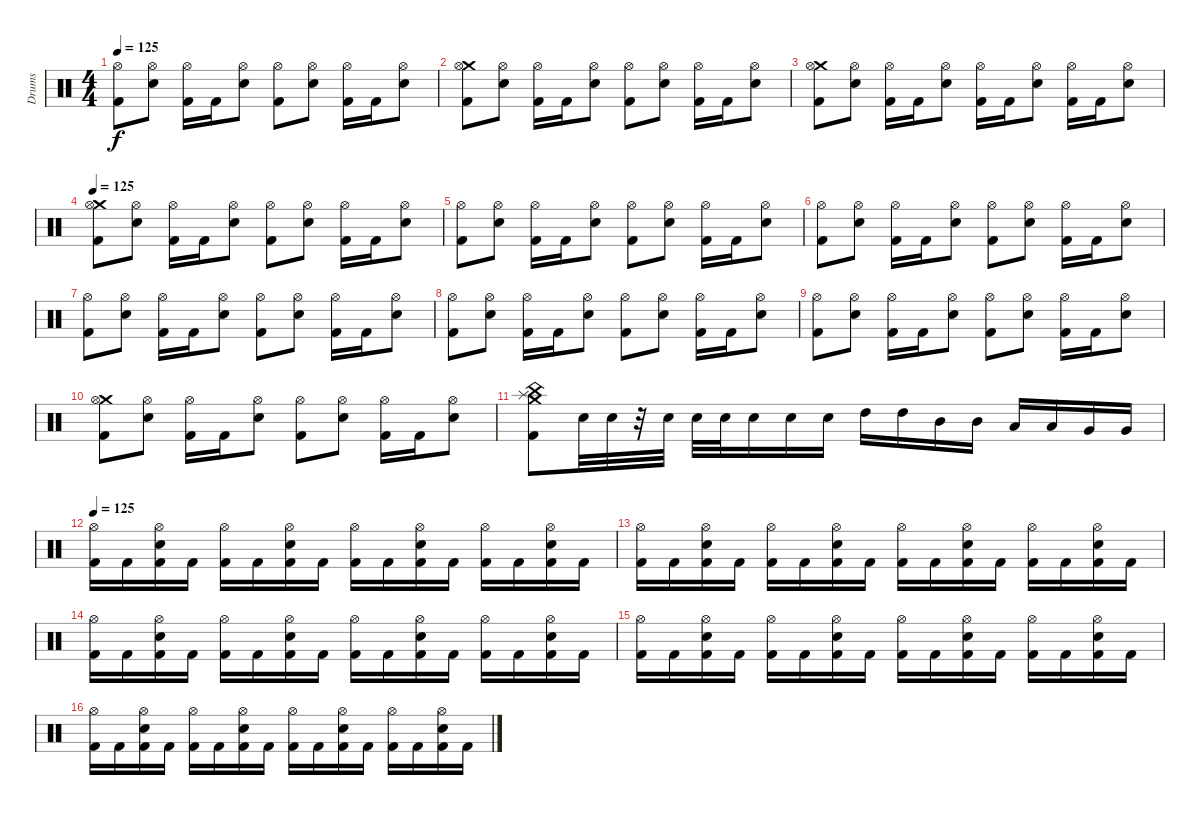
\track ("Drums" "Drums") {instrument percussion}
\staff {score}
\articulation defaults
\ts (4 4)
\tempo 125
\clef neutral
\ks c
("Hi-Hat (open)" "Kick (hit) 2").8{dy f} ("Hi-Hat (open)" "Electric Snare (hit)").8 ("Hi-Hat (open)" "Kick (hit) 2").16 "Kick (hit) 2".16 ("Hi-Hat (open)" "Electric Snare (hit)").8 ("Hi-Hat (open)" "Kick (hit) 2").8 ("Hi-Hat (open)" "Electric Snare (hit)").8 ("Hi-Hat (open)" "Kick (hit) 2").16 "Kick (hit) 2".16 ("Hi-Hat (open)" "Electric Snare (hit)").8 |
("Crash medium (hit)" "Hi-Hat (open)" "Kick (hit) 2").8 ("Hi-Hat (open)" "Electric Snare (hit)").8 ("Hi-Hat (open)" "Kick (hit) 2").16 "Kick (hit) 2".16 ("Hi-Hat (open)" "Electric Snare (hit)").8 ("Hi-Hat (open)" "Kick (hit) 2").8 ("Hi-Hat (open)" "Electric Snare (hit)").8 ("Hi-Hat (open)" "Kick (hit) 2").16 "Kick (hit) 2".16 ("Hi-Hat (open)" "Electric Snare (hit)").8 |
("Crash medium (hit)" "Hi-Hat (open)" "Kick (hit) 2").8 ("Hi-Hat (open)" "Electric Snare (hit)").8 ("Hi-Hat (open)" "Kick (hit) 2").16 "Kick (hit) 2".16 ("Hi-Hat (open)" "Electric Snare (hit)").8 ("Kick (hit) 2" "Hi-Hat (open)").16 "Kick (hit) 2".16 ("Hi-Hat (open)" "Electric Snare (hit)").8 ("Hi-Hat (open)" "Kick (hit) 2").16 "Kick (hit) 2".16 ("Hi-Hat (open)" "Electric Snare (hit)").8 |
\tempo 125
("Crash medium (hit)" "Hi-Hat (open)" "Kick (hit) 2").8 ("Hi-Hat (open)" "Electric Snare (hit)").8 ("Hi-Hat (open)" "Kick (hit) 2").16 "Kick (hit) 2".16 ("Hi-Hat (open)" "Electric Snare (hit)").8 ("Hi-Hat (open)" "Kick (hit) 2").8 ("Hi-Hat (open)" "Electric Snare (hit)").8 ("Hi-Hat (open)" "Kick (hit) 2").16 "Kick (hit) 2".16 ("Hi-Hat (open)" "Electric Snare (hit)").8 |
("Hi-Hat (open)" "Kick (hit) 2").8 ("Hi-Hat (open)" "Electric Snare (hit)").8 ("Hi-Hat (open)" "Kick (hit) 2").16 "Kick (hit) 2".16 ("Hi-Hat (open)" "Electric Snare (hit)").8 ("Hi-Hat (open)" "Kick (hit) 2").8 ("Hi-Hat (open)" "Electric Snare (hit)").8 ("Hi-Hat (open)" "Kick (hit) 2").16 "Kick (hit) 2".16 ("Hi-Hat (open)" "Electric Snare (hit)").8 |
("Hi-Hat (open)" "Kick (hit) 2").8 ("Hi-Hat (open)" "Electric Snare (hit)").8 ("Hi-Hat (open)" "Kick (hit) 2").16 "Kick (hit) 2".16 ("Hi-Hat (open)" "Electric Snare (hit)").8 ("Hi-Hat (open)" "Kick (hit) 2").8 ("Hi-Hat (open)" "Electric Snare (hit)").8 ("Hi-Hat (open)" "Kick (hit) 2").16 "Kick (hit) 2".16 ("Hi-Hat (open)" "Electric Snare (hit)").8 |
("Hi-Hat (open)" "Kick (hit) 2").8 ("Hi-Hat (open)" "Electric Snare (hit)").8 ("Hi-Hat (open)" "Kick (hit) 2").16 "Kick (hit) 2".16 ("Hi-Hat (open)" "Electric Snare (hit)").8 ("Hi-Hat (open)" "Kick (hit) 2").8 ("Hi-Hat (open)" "Electric Snare (hit)").8 ("Hi-Hat (open)" "Kick (hit) 2").16 "Kick (hit) 2".16 ("Hi-Hat (open)" "Electric Snare (hit)").8 |
("Hi-Hat (open)" "Kick (hit) 2").8 ("Hi-Hat (open)" "Electric Snare (hit)").8 ("Hi-Hat (open)" "Kick (hit) 2").16 "Kick (hit) 2".16 ("Hi-Hat (open)" "Electric Snare (hit)").8 ("Hi-Hat (open)" "Kick (hit) 2").8 ("Hi-Hat (open)" "Electric Snare (hit)").8 ("Hi-Hat (open)" "Kick (hit) 2").16 "Kick (hit) 2".16 ("Hi-Hat (open)" "Electric Snare (hit)").8 |
("Hi-Hat (open)" "Kick (hit) 2").8 ("Hi-Hat (open)" "Electric Snare (hit)").8 ("Hi-Hat (open)" "Kick (hit) 2").16 "Kick (hit) 2".16 ("Hi-Hat (open)" "Electric Snare (hit)").8 ("Hi-Hat (open)" "Kick (hit) 2").8 ("Hi-Hat (open)" "Electric Snare (hit)").8 ("Hi-Hat (open)" "Kick (hit) 2").16 "Kick (hit) 2".16 ("Hi-Hat (open)" "Electric Snare (hit)").8 |
("Crash medium (hit)" "Hi-Hat (open)" "Kick (hit) 2").8 ("Hi-Hat (open)" "Electric Snare (hit)").8 ("Hi-Hat (open)" "Kick (hit) 2").16 "Kick (hit) 2".16 ("Hi-Hat (open)" "Electric Snare (hit)").8 ("Hi-Hat (open)" "Kick (hit) 2").8 ("Hi-Hat (open)" "Electric Snare (hit)").8 ("Hi-Hat (open)" "Kick (hit) 2").16 "Kick (hit) 2".16 ("Hi-Hat (open)" "Electric Snare (hit)").8 |
("Splash (hit)" "Crash medium (hit)" "China (hit)" "Kick (hit) 2").8{volume 15} "Electric Snare (hit)".32{volume 4} "Electric Snare (hit)".32{volume 5} r.32 "Electric Snare (hit)".32{volume 6} "Electric Snare (hit)".32{volume 8} "Electric Snare (hit)".32{volume 8} "Electric Snare (hit)".16{volume 9} "Electric Snare (hit)".16{volume 11} "Electric Snare (hit)".16{volume 13} "High Tom (hit)".16{volume 15} "High Tom (hit)".16 "Mid Tom (hit)".16 "Mid Tom (hit)".16 "Low Tom (hit)".16 "Low Tom (hit)".16 "Very Low Tom (hit)".16 "Very Low Tom (hit)".16 |
\tempo 125
("Kick (hit) 2" "Hi-Hat (open)").16 "Kick (hit) 2".16 ("Kick (hit) 2" "Electric Snare (hit)" "Hi-Hat (open)").16 "Kick (hit) 2".16 ("Kick (hit) 2" "Hi-Hat (open)").16 "Kick (hit) 2".16 ("Kick (hit) 2" "Electric Snare (hit)" "Hi-Hat (open)").16 "Kick (hit) 2".16 ("Kick (hit) 2" "Hi-Hat (open)").16 "Kick (hit) 2".16 ("Kick (hit) 2" "Electric Snare (hit)" "Hi-Hat (open)").16 "Kick (hit) 2".16 ("Kick (hit) 2" "Hi-Hat (open)").16 "Kick (hit) 2".16 ("Kick (hit) 2" "Electric Snare (hit)" "Hi-Hat (open)").16 "Kick (hit) 2".16 |
("Kick (hit) 2" "Hi-Hat (open)").16 "Kick (hit) 2".16 ("Kick (hit) 2" "Electric Snare (hit)" "Hi-Hat (open)").16 "Kick (hit) 2".16 ("Kick (hit) 2" "Hi-Hat (open)").16 "Kick (hit) 2".16 ("Kick (hit) 2" "Electric Snare (hit)" "Hi-Hat (open)").16 "Kick (hit) 2".16 ("Kick (hit) 2" "Hi-Hat (open)").16 "Kick (hit) 2".16 ("Kick (hit) 2" "Electric Snare (hit)" "Hi-Hat (open)").16 "Kick (hit) 2".16 ("Kick (hit) 2" "Hi-Hat (open)").16 "Kick (hit) 2".16 ("Kick (hit) 2" "Electric Snare (hit)" "Hi-Hat (open)").16 "Kick (hit) 2".16 |
("Kick (hit) 2" "Hi-Hat (open)").16 "Kick (hit) 2".16 ("Kick (hit) 2" "Electric Snare (hit)" "Hi-Hat (open)").16 "Kick (hit) 2".16 ("Kick (hit) 2" "Hi-Hat (open)").16 "Kick (hit) 2".16 ("Kick (hit) 2" "Electric Snare (hit)" "Hi-Hat (open)").16 "Kick (hit) 2".16 ("Kick (hit) 2" "Hi-Hat (open)").16 "Kick (hit) 2".16 ("Kick (hit) 2" "Electric Snare (hit)" "Hi-Hat (open)").16 "Kick (hit) 2".16 ("Kick (hit) 2" "Hi-Hat (open)").16 "Kick (hit) 2".16 ("Kick (hit) 2" "Electric Snare (hit)" "Hi-Hat (open)").16 "Kick (hit) 2".16 |
("Kick (hit) 2" "Hi-Hat (open)").16 "Kick (hit) 2".16 ("Kick (hit) 2" "Electric Snare (hit)" "Hi-Hat (open)").16 "Kick (hit) 2".16 ("Kick (hit) 2" "Hi-Hat (open)").16 "Kick (hit) 2".16 ("Kick (hit) 2" "Electric Snare (hit)" "Hi-Hat (open)").16 "Kick (hit) 2".16 ("Kick (hit) 2" "Hi-Hat (open)").16 "Kick (hit) 2".16 ("Kick (hit) 2" "Electric Snare (hit)" "Hi-Hat (open)").16 "Kick (hit) 2".16 ("Kick (hit) 2" "Hi-Hat (open)").16 "Kick (hit) 2".16 ("Kick (hit) 2" "Electric Snare (hit)" "Hi-Hat (open)").16 "Kick (hit) 2".16 |
("Kick (hit) 2" "Hi-Hat (open)").16 "Kick (hit) 2".16 ("Kick (hit) 2" "Electric Snare (hit)" "Hi-Hat (open)").16 "Kick (hit) 2".16 ("Kick (hit) 2" "Hi-Hat (open)").16 "Kick (hit) 2".16 ("Kick (hit) 2" "Electric Snare (hit)" "Hi-Hat (open)").16 "Kick (hit) 2".16 ("Kick (hit) 2" "Hi-Hat (open)").16 "Kick (hit) 2".16 ("Kick (hit) 2" "Electric Snare (hit)" "Hi-Hat (open)").16 "Kick (hit) 2".16 ("Kick (hit) 2" "Hi-Hat (open)").16 "Kick (hit) 2".16 ("Kick (hit) 2" "Electric Snare (hit)" "Hi-Hat (open)").16 "Kick (hit) 2".16
